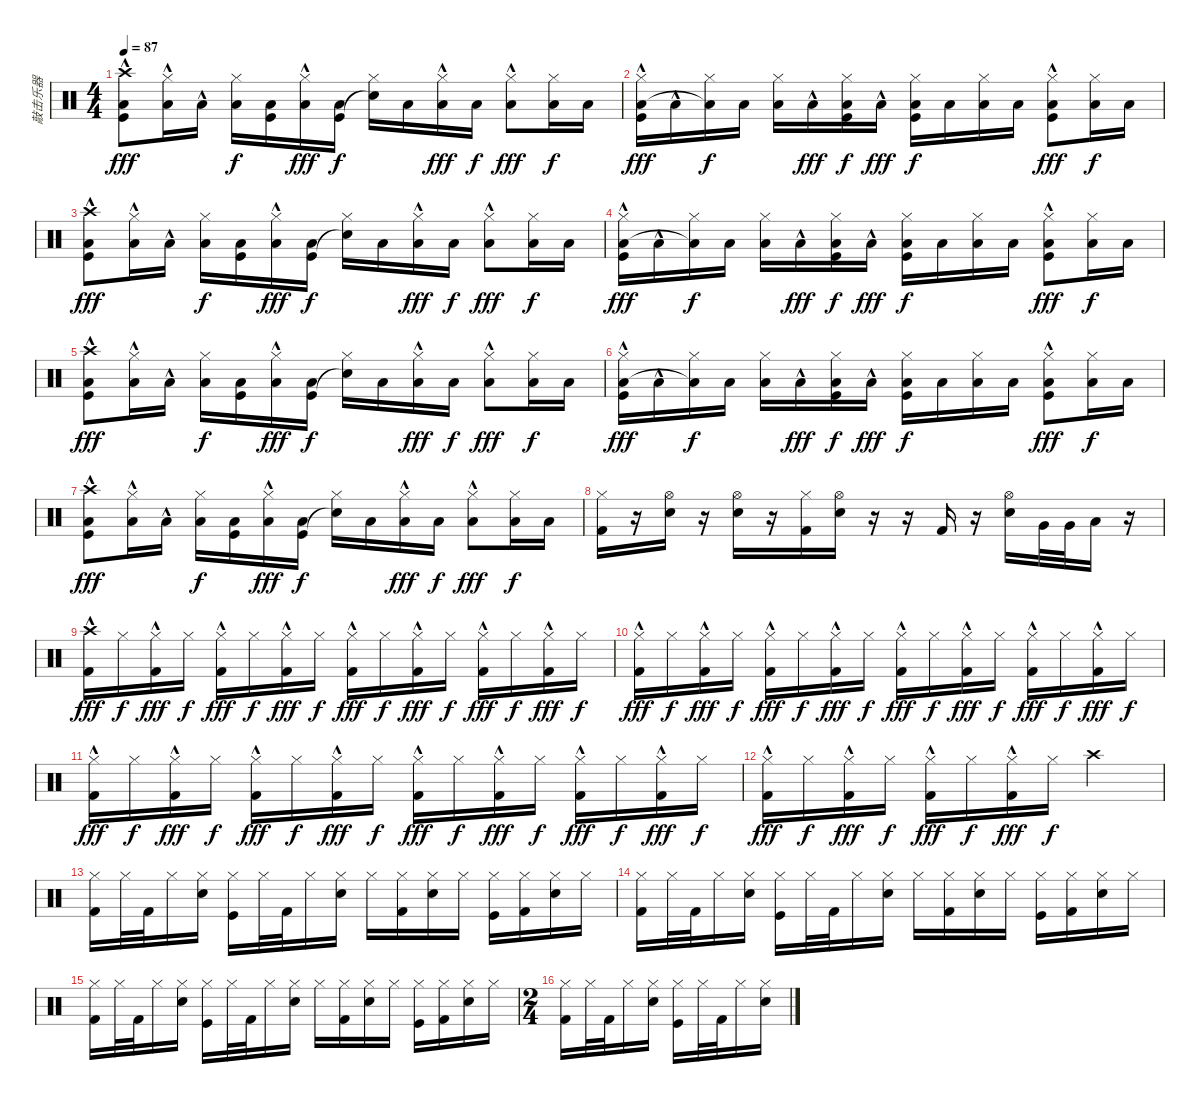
\track ("敲击乐器" "敲击乐器") {instrument percussion}
\staff {score}
\articulation defaults
\ts (4 4)
\tempo 87
\clef neutral
\ks c
("Crash high (hit)" "Low Floor Tom (hit)"{hac} "Kick (hit)").8{dy fff} ("Hi-Hat (closed)" "Low Floor Tom (hit)"{hac}).16 "Low Floor Tom (hit)"{hac}.16 ("Hi-Hat (closed)" "Low Floor Tom (hit)").16{dy f} ("Low Floor Tom (hit)" "Kick (hit)").16 ("Hi-Hat (closed)" "Low Floor Tom (hit)"{hac}).16{dy fff} ("Low Floor Tom (hit)" "Kick (hit)").16{dy f} ("Hi-Hat (closed)" "Snare (hit)"{t}).16 "Low Floor Tom (hit)".16 ("Hi-Hat (closed)" "Low Floor Tom (hit)"{hac}).16{dy fff} "Low Floor Tom (hit)".16{dy f} ("Hi-Hat (closed)" "Low Floor Tom (hit)"{hac}).8{dy fff} ("Hi-Hat (closed)" "Low Floor Tom (hit)").16{dy f} "Low Floor Tom (hit)".16 |
("Hi-Hat (closed)" "Low Floor Tom (hit)"{hac} "Kick (hit)").16{dy fff} "Low Floor Tom (hit)"{hac}.16 ("Hi-Hat (closed)" "Low Floor Tom (hit)"{t}).16{dy f} "Low Floor Tom (hit)".16 ("Hi-Hat (closed)" "Low Floor Tom (hit)").16 "Low Floor Tom (hit)"{hac}.16{dy fff} ("Hi-Hat (closed)" "Low Floor Tom (hit)" "Kick (hit)").16{dy f} "Low Floor Tom (hit)"{hac}.16{dy fff} ("Hi-Hat (closed)" "Low Floor Tom (hit)" "Kick (hit)").16{dy f} "Low Floor Tom (hit)".16 ("Hi-Hat (closed)" "Low Floor Tom (hit)").16 "Low Floor Tom (hit)".16 ("Hi-Hat (closed)" "Low Floor Tom (hit)"{hac} "Kick (hit)").8{dy fff} ("Hi-Hat (closed)" "Low Floor Tom (hit)").16{dy f} "Low Floor Tom (hit)".16 |
("Crash high (hit)" "Low Floor Tom (hit)"{hac} "Kick (hit)").8{dy fff} ("Hi-Hat (closed)" "Low Floor Tom (hit)"{hac}).16 "Low Floor Tom (hit)"{hac}.16 ("Hi-Hat (closed)" "Low Floor Tom (hit)").16{dy f} ("Low Floor Tom (hit)" "Kick (hit)").16 ("Hi-Hat (closed)" "Low Floor Tom (hit)"{hac}).16{dy fff} ("Low Floor Tom (hit)" "Kick (hit)").16{dy f} ("Hi-Hat (closed)" "Snare (hit)"{t}).16 "Low Floor Tom (hit)".16 ("Hi-Hat (closed)" "Low Floor Tom (hit)"{hac}).16{dy fff} "Low Floor Tom (hit)".16{dy f} ("Hi-Hat (closed)" "Low Floor Tom (hit)"{hac}).8{dy fff} ("Hi-Hat (closed)" "Low Floor Tom (hit)").16{dy f} "Low Floor Tom (hit)".16 |
("Hi-Hat (closed)" "Low Floor Tom (hit)"{hac} "Kick (hit)").16{dy fff} "Low Floor Tom (hit)"{hac}.16 ("Hi-Hat (closed)" "Low Floor Tom (hit)"{t}).16{dy f} "Low Floor Tom (hit)".16 ("Hi-Hat (closed)" "Low Floor Tom (hit)").16 "Low Floor Tom (hit)"{hac}.16{dy fff} ("Hi-Hat (closed)" "Low Floor Tom (hit)" "Kick (hit)").16{dy f} "Low Floor Tom (hit)"{hac}.16{dy fff} ("Hi-Hat (closed)" "Low Floor Tom (hit)" "Kick (hit)").16{dy f} "Low Floor Tom (hit)".16 ("Hi-Hat (closed)" "Low Floor Tom (hit)").16 "Low Floor Tom (hit)".16 ("Hi-Hat (closed)" "Low Floor Tom (hit)"{hac} "Kick (hit)").8{dy fff} ("Hi-Hat (closed)" "Low Floor Tom (hit)").16{dy f} "Low Floor Tom (hit)".16 |
("Crash high (hit)" "Low Floor Tom (hit)"{hac} "Kick (hit)").8{dy fff} ("Hi-Hat (closed)" "Low Floor Tom (hit)"{hac}).16 "Low Floor Tom (hit)"{hac}.16 ("Hi-Hat (closed)" "Low Floor Tom (hit)").16{dy f} ("Low Floor Tom (hit)" "Kick (hit)").16 ("Hi-Hat (closed)" "Low Floor Tom (hit)"{hac}).16{dy fff} ("Low Floor Tom (hit)" "Kick (hit)").16{dy f} ("Hi-Hat (closed)" "Snare (hit)"{t}).16 "Low Floor Tom (hit)".16 ("Hi-Hat (closed)" "Low Floor Tom (hit)"{hac}).16{dy fff} "Low Floor Tom (hit)".16{dy f} ("Hi-Hat (closed)" "Low Floor Tom (hit)"{hac}).8{dy fff} ("Hi-Hat (closed)" "Low Floor Tom (hit)").16{dy f} "Low Floor Tom (hit)".16 |
("Hi-Hat (closed)" "Low Floor Tom (hit)"{hac} "Kick (hit)").16{dy fff} "Low Floor Tom (hit)"{hac}.16 ("Hi-Hat (closed)" "Low Floor Tom (hit)"{t}).16{dy f} "Low Floor Tom (hit)".16 ("Hi-Hat (closed)" "Low Floor Tom (hit)").16 "Low Floor Tom (hit)"{hac}.16{dy fff} ("Hi-Hat (closed)" "Low Floor Tom (hit)" "Kick (hit)").16{dy f} "Low Floor Tom (hit)"{hac}.16{dy fff} ("Hi-Hat (closed)" "Low Floor Tom (hit)" "Kick (hit)").16{dy f} "Low Floor Tom (hit)".16 ("Hi-Hat (closed)" "Low Floor Tom (hit)").16 "Low Floor Tom (hit)".16 ("Hi-Hat (closed)" "Low Floor Tom (hit)"{hac} "Kick (hit)").8{dy fff} ("Hi-Hat (closed)" "Low Floor Tom (hit)").16{dy f} "Low Floor Tom (hit)".16 |
("Crash high (hit)" "Low Floor Tom (hit)"{hac} "Kick (hit)").8{dy fff} ("Hi-Hat (closed)" "Low Floor Tom (hit)"{hac}).16 "Low Floor Tom (hit)"{hac}.16 ("Hi-Hat (closed)" "Low Floor Tom (hit)").16{dy f} ("Low Floor Tom (hit)" "Kick (hit)").16 ("Hi-Hat (closed)" "Low Floor Tom (hit)"{hac}).16{dy fff} ("Low Floor Tom (hit)" "Kick (hit)").16{dy f} ("Hi-Hat (closed)" "Snare (hit)"{t}).16 "Low Floor Tom (hit)".16 ("Hi-Hat (closed)" "Low Floor Tom (hit)"{hac}).16{dy fff} "Low Floor Tom (hit)".16{dy f} ("Hi-Hat (closed)" "Low Floor Tom (hit)"{hac}).8{dy fff} ("Hi-Hat (closed)" "Low Floor Tom (hit)").16{dy f} "Low Floor Tom (hit)".16 |
("Hi-Hat (closed)" "Kick (hit) 2").16 r.16 ("Hi-Hat (open)" "Snare (hit) 2").16 r.16 ("Hi-Hat (open)" "Snare (hit) 2").16 r.16 ("Hi-Hat (closed)" "Kick (hit) 2").16 ("Hi-Hat (open)" "Snare (hit) 2").16 r.16 r.16 "Kick (hit) 2".16 r.16 ("Hi-Hat (open)" "Snare (hit) 2").16 "Very Low Tom (hit)".32 "Very Low Tom (hit)".32 "Low Floor Tom (hit)".16 r.16 |
("Crash high (hit)"{hac} "Kick (hit) 2"{hac}).16{dy fff} "Hi-Hat (closed)".16{dy f} ("Hi-Hat (closed)"{hac} "Kick (hit) 2").16{dy fff} "Hi-Hat (closed)".16{dy f} ("Hi-Hat (closed)"{hac} "Kick (hit) 2").16{dy fff} "Hi-Hat (closed)".16{dy f} ("Hi-Hat (closed)"{hac} "Kick (hit) 2").16{dy fff} "Hi-Hat (closed)".16{dy f} ("Hi-Hat (closed)"{hac} "Kick (hit) 2").16{dy fff} "Hi-Hat (closed)".16{dy f} ("Hi-Hat (closed)"{hac} "Kick (hit) 2").16{dy fff} "Hi-Hat (closed)".16{dy f} ("Hi-Hat (closed)"{hac} "Kick (hit) 2").16{dy fff} "Hi-Hat (closed)".16{dy f} ("Hi-Hat (closed)"{hac} "Kick (hit) 2").16{dy fff} "Hi-Hat (closed)".16{dy f} |
("Hi-Hat (closed)"{hac} "Kick (hit) 2"{hac}).16{dy fff} "Hi-Hat (closed)".16{dy f} ("Hi-Hat (closed)"{hac} "Kick (hit) 2").16{dy fff} "Hi-Hat (closed)".16{dy f} ("Hi-Hat (closed)"{hac} "Kick (hit) 2").16{dy fff} "Hi-Hat (closed)".16{dy f} ("Hi-Hat (closed)"{hac} "Kick (hit) 2").16{dy fff} "Hi-Hat (closed)".16{dy f} ("Hi-Hat (closed)"{hac} "Kick (hit) 2").16{dy fff} "Hi-Hat (closed)".16{dy f} ("Hi-Hat (closed)"{hac} "Kick (hit) 2").16{dy fff} "Hi-Hat (closed)".16{dy f} ("Hi-Hat (closed)"{hac} "Kick (hit) 2").16{dy fff} "Hi-Hat (closed)".16{dy f} ("Hi-Hat (closed)"{hac} "Kick (hit) 2").16{dy fff} "Hi-Hat (closed)".16{dy f} |
("Hi-Hat (closed)"{hac} "Kick (hit) 2"{hac}).16{dy fff} "Hi-Hat (closed)".16{dy f} ("Hi-Hat (closed)"{hac} "Kick (hit) 2").16{dy fff} "Hi-Hat (closed)".16{dy f} ("Hi-Hat (closed)"{hac} "Kick (hit) 2").16{dy fff} "Hi-Hat (closed)".16{dy f} ("Hi-Hat (closed)"{hac} "Kick (hit) 2").16{dy fff} "Hi-Hat (closed)".16{dy f} ("Hi-Hat (closed)"{hac} "Kick (hit) 2").16{dy fff} "Hi-Hat (closed)".16{dy f} ("Hi-Hat (closed)"{hac} "Kick (hit) 2").16{dy fff} "Hi-Hat (closed)".16{dy f} ("Hi-Hat (closed)"{hac} "Kick (hit) 2").16{dy fff} "Hi-Hat (closed)".16{dy f} ("Hi-Hat (closed)"{hac} "Kick (hit) 2").16{dy fff} "Hi-Hat (closed)".16{dy f} |
("Hi-Hat (closed)"{hac} "Kick (hit) 2"{hac}).16{dy fff} "Hi-Hat (closed)".16{dy f} ("Hi-Hat (closed)"{hac} "Kick (hit) 2").16{dy fff} "Hi-Hat (closed)".16{dy f} ("Hi-Hat (closed)"{hac} "Kick (hit) 2").16{dy fff} "Hi-Hat (closed)".16{dy f} ("Hi-Hat (closed)"{hac} "Kick (hit) 2").16{dy fff} "Hi-Hat (closed)".16{dy f} "Crash high (hit)".2 |
("Hi-Hat (closed)" "Kick (hit) 2").16 "Hi-Hat (closed)".32 "Kick (hit) 2".32 "Hi-Hat (closed)".16 ("Hi-Hat (closed)" "Snare (hit) 2").16 ("Hi-Hat (closed)" "Kick (hit)").16 "Hi-Hat (closed)".32 "Kick (hit) 2".32 "Hi-Hat (closed)".16 ("Hi-Hat (closed)" "Snare (hit) 2").16 "Hi-Hat (closed)".16 ("Hi-Hat (closed)" "Kick (hit) 2").16 ("Hi-Hat (closed)" "Snare (hit) 2").16 "Hi-Hat (closed)".16 ("Hi-Hat (closed)" "Kick (hit)").16 ("Hi-Hat (closed)" "Kick (hit) 2").16 ("Hi-Hat (closed)" "Snare (hit) 2").16 "Hi-Hat (closed)".16 |
("Hi-Hat (closed)" "Kick (hit) 2").16 "Hi-Hat (closed)".32 "Kick (hit) 2".32 "Hi-Hat (closed)".16 ("Hi-Hat (closed)" "Snare (hit) 2").16 ("Hi-Hat (closed)" "Kick (hit)").16 "Hi-Hat (closed)".32 "Kick (hit) 2".32 "Hi-Hat (closed)".16 ("Hi-Hat (closed)" "Snare (hit) 2").16 "Hi-Hat (closed)".16 ("Hi-Hat (closed)" "Kick (hit) 2").16 ("Hi-Hat (closed)" "Snare (hit) 2").16 "Hi-Hat (closed)".16 ("Hi-Hat (closed)" "Kick (hit)").16 ("Hi-Hat (closed)" "Kick (hit) 2").16 ("Hi-Hat (closed)" "Snare (hit) 2").16 "Hi-Hat (closed)".16 |
("Hi-Hat (closed)" "Kick (hit) 2").16 "Hi-Hat (closed)".32 "Kick (hit) 2".32 "Hi-Hat (closed)".16 ("Hi-Hat (closed)" "Snare (hit) 2").16 ("Hi-Hat (closed)" "Kick (hit)").16 "Hi-Hat (closed)".32 "Kick (hit) 2".32 "Hi-Hat (closed)".16 ("Hi-Hat (closed)" "Snare (hit) 2").16 "Hi-Hat (closed)".16 ("Hi-Hat (closed)" "Kick (hit) 2").16 ("Hi-Hat (closed)" "Snare (hit) 2").16 "Hi-Hat (closed)".16 ("Hi-Hat (closed)" "Kick (hit)").16 ("Hi-Hat (closed)" "Kick (hit) 2").16 ("Hi-Hat (closed)" "Snare (hit) 2").16 "Hi-Hat (closed)".16 |
\ts (2 4)
("Hi-Hat (closed)" "Kick (hit) 2").16 "Hi-Hat (closed)".32 "Kick (hit) 2".32 "Hi-Hat (closed)".16 ("Hi-Hat (closed)" "Snare (hit) 2").16 ("Hi-Hat (closed)" "Kick (hit)").16 "Hi-Hat (closed)".32 "Kick (hit) 2".32 "Hi-Hat (closed)".16 ("Hi-Hat (closed)" "Snare (hit) 2").16
